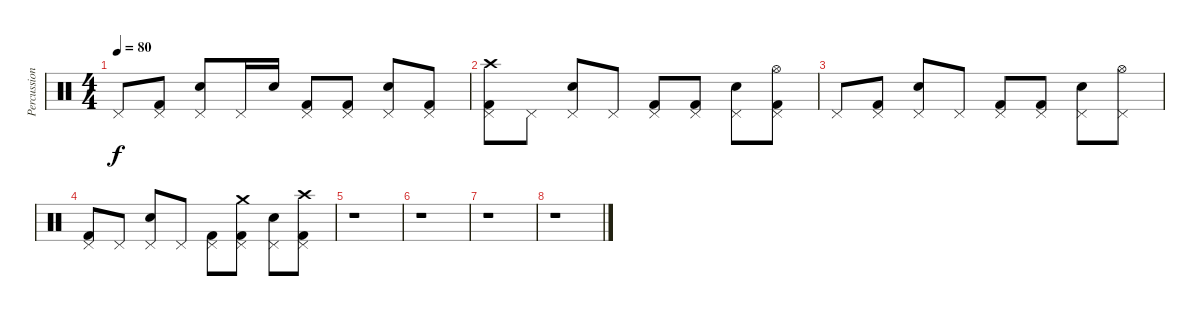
\track ("Percussion" "Percussion") {instrument percussion}
\staff {score}
\articulation defaults
\ts (4 4)
\tempo 80
\clef neutral
\ks c "Pedal Hi-Hat (hit)".8{dy f}
("Pedal Hi-Hat (hit)" "Kick (hit) 2").8 ("Pedal Hi-Hat (hit)" "Electric Snare (hit)").8 "Pedal Hi-Hat (hit)".16 "Electric Snare (hit)".16 ("Pedal Hi-Hat (hit)" "Kick (hit) 2").8 ("Pedal Hi-Hat (hit)" "Kick (hit) 2").8 ("Pedal Hi-Hat (hit)" "Electric Snare (hit)").8 ("Pedal Hi-Hat (hit)" "Kick (hit) 2").8 |
("Pedal Hi-Hat (hit)" "Crash high (hit)" "Kick (hit) 2").8 "Pedal Hi-Hat (hit)".8 ("Pedal Hi-Hat (hit)" "Electric Snare (hit)").8 "Pedal Hi-Hat (hit)".8 ("Pedal Hi-Hat (hit)" "Kick (hit) 2").8 ("Pedal Hi-Hat (hit)" "Kick (hit) 2").8 ("Pedal Hi-Hat (hit)" "Electric Snare (hit)").8 ("Pedal Hi-Hat (hit)" "Hi-Hat (open)" "Kick (hit) 2").8 |
"Pedal Hi-Hat (hit)".8 ("Pedal Hi-Hat (hit)" "Kick (hit) 2").8 ("Pedal Hi-Hat (hit)" "Electric Snare (hit)").8 "Pedal Hi-Hat (hit)".8 ("Pedal Hi-Hat (hit)" "Kick (hit) 2").8 ("Pedal Hi-Hat (hit)" "Kick (hit) 2").8 ("Pedal Hi-Hat (hit)" "Electric Snare (hit)").8 ("Pedal Hi-Hat (hit)" "Hi-Hat (open)").8 |
("Pedal Hi-Hat (hit)" "Kick (hit) 2").8 "Pedal Hi-Hat (hit)".8 ("Pedal Hi-Hat (hit)" "Electric Snare (hit)").8 "Pedal Hi-Hat (hit)".8 ("Pedal Hi-Hat (hit)" "Kick (hit) 2").8 ("Pedal Hi-Hat (hit)" "Crash medium (hit)" "Kick (hit) 2").8 ("Pedal Hi-Hat (hit)" "Electric Snare (hit)").8 ("Pedal Hi-Hat (hit)" "Crash high (hit)" "Kick (hit) 2").8 |
r.1 |
r.1 |
r.1 |
r.1
